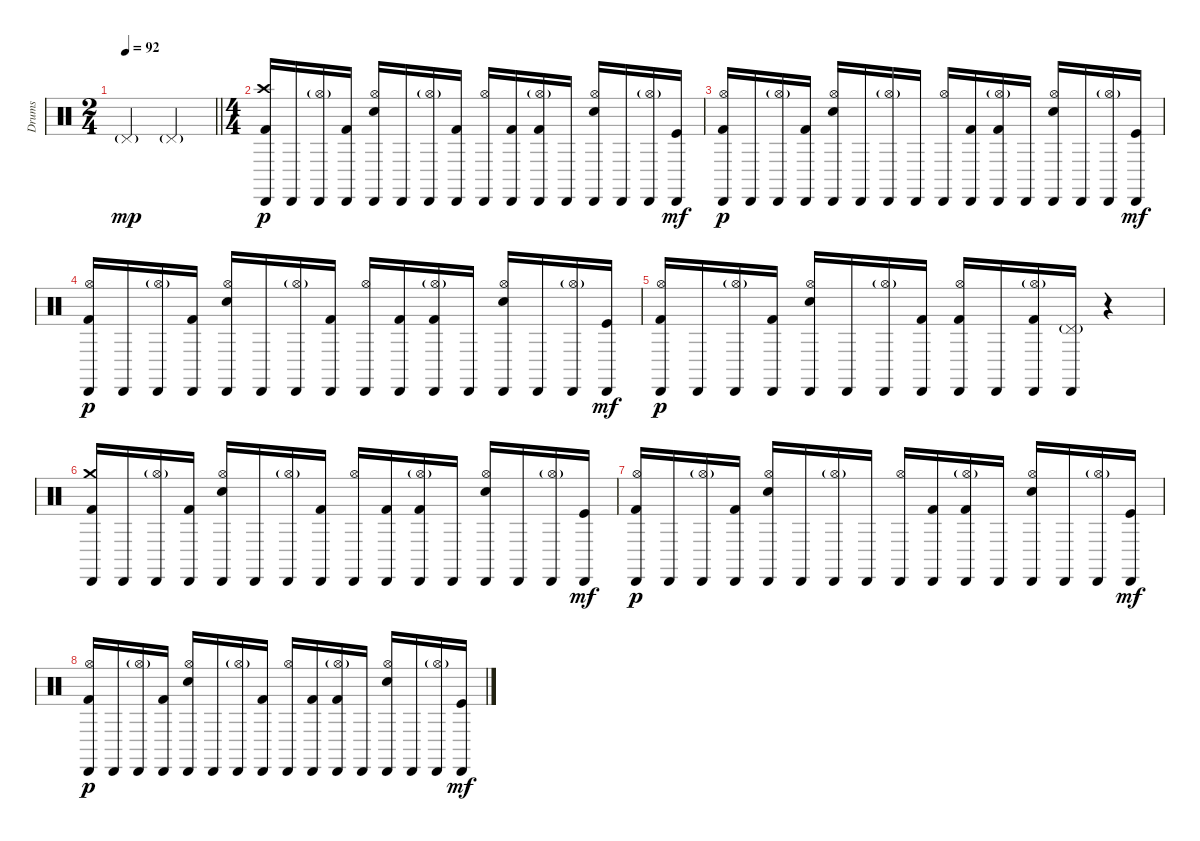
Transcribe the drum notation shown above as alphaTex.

\track ("Drums" "Drums") {instrument percussion}
\staff {score}
\articulation defaults
\ts (2 4)
\tempo 92
\clef neutral
\barLineRight lightlight
\ks c "Pedal Hi-Hat (hit)"{g}.4{dy mp} "Pedal Hi-Hat (hit)"{g}.4
|
\ts (4 4)
("Crash high (hit)" "Cabasa (hit)" "Kick (hit) 2").16{dy p} "Cabasa (hit)".16 ("Hi-Hat (open)"{g} "Cabasa (hit)").16 ("Cabasa (hit)" "Kick (hit) 2").16 ("Hi-Hat (open)" "Cabasa (hit)" "Electric Snare (hit)").16 "Cabasa (hit)".16 ("Hi-Hat (open)"{g} "Cabasa (hit)").16 ("Cabasa (hit)" "Kick (hit) 2").16 ("Hi-Hat (open)" "Cabasa (hit)").16 ("Cabasa (hit)" "Kick (hit) 2").16 ("Hi-Hat (open)"{g} "Cabasa (hit)" "Kick (hit) 2").16 "Cabasa (hit)".16 ("Hi-Hat (open)" "Cabasa (hit)" "Electric Snare (hit)").16 "Cabasa (hit)".16 ("Hi-Hat (open)"{g} "Cabasa (hit)").16 ("Cabasa (hit)" "Kick (hit)").16{dy mf} |
("Hi-Hat (open)" "Cabasa (hit)" "Kick (hit) 2").16{dy p} "Cabasa (hit)".16 ("Hi-Hat (open)"{g} "Cabasa (hit)").16 ("Cabasa (hit)" "Kick (hit) 2").16 ("Hi-Hat (open)" "Cabasa (hit)" "Electric Snare (hit)").16 "Cabasa (hit)".16 ("Hi-Hat (open)"{g} "Cabasa (hit)").16 "Cabasa (hit)".16 ("Hi-Hat (open)" "Cabasa (hit)").16 ("Cabasa (hit)" "Kick (hit) 2").16 ("Hi-Hat (open)"{g} "Cabasa (hit)" "Kick (hit) 2").16 "Cabasa (hit)".16 ("Hi-Hat (open)" "Cabasa (hit)" "Electric Snare (hit)").16 "Cabasa (hit)".16 ("Hi-Hat (open)"{g} "Cabasa (hit)").16 ("Cabasa (hit)" "Kick (hit)").16{dy mf} |
("Hi-Hat (open)" "Cabasa (hit)" "Kick (hit) 2").16{dy p} "Cabasa (hit)".16 ("Hi-Hat (open)"{g} "Cabasa (hit)").16 ("Cabasa (hit)" "Kick (hit) 2").16 ("Hi-Hat (open)" "Cabasa (hit)" "Electric Snare (hit)").16 "Cabasa (hit)".16 ("Hi-Hat (open)"{g} "Cabasa (hit)").16 ("Cabasa (hit)" "Kick (hit) 2").16 ("Hi-Hat (open)" "Cabasa (hit)").16 ("Cabasa (hit)" "Kick (hit) 2").16 ("Hi-Hat (open)"{g} "Cabasa (hit)" "Kick (hit) 2").16 "Cabasa (hit)".16 ("Hi-Hat (open)" "Cabasa (hit)" "Electric Snare (hit)").16 "Cabasa (hit)".16 ("Hi-Hat (open)"{g} "Cabasa (hit)").16 ("Cabasa (hit)" "Kick (hit)").16{dy mf} |
("Hi-Hat (open)" "Cabasa (hit)" "Kick (hit) 2").16{dy p} "Cabasa (hit)".16 ("Hi-Hat (open)"{g} "Cabasa (hit)").16 ("Cabasa (hit)" "Kick (hit) 2").16 ("Hi-Hat (open)" "Cabasa (hit)" "Electric Snare (hit)").16 "Cabasa (hit)".16 ("Hi-Hat (open)"{g} "Cabasa (hit)").16 ("Cabasa (hit)" "Kick (hit) 2").16 ("Hi-Hat (open)" "Cabasa (hit)" "Kick (hit) 2").16 "Cabasa (hit)".16 ("Hi-Hat (open)"{g} "Cabasa (hit)" "Kick (hit) 2").16 ("Pedal Hi-Hat (hit)"{g} "Cabasa (hit)").16 r.4 |
("Crash medium (hit)" "Cabasa (hit)" "Kick (hit) 2").16 "Cabasa (hit)".16 ("Hi-Hat (open)"{g} "Cabasa (hit)").16 ("Cabasa (hit)" "Kick (hit) 2").16 ("Hi-Hat (open)" "Cabasa (hit)" "Electric Snare (hit)").16 "Cabasa (hit)".16 ("Hi-Hat (open)"{g} "Cabasa (hit)").16 ("Cabasa (hit)" "Kick (hit) 2").16 ("Hi-Hat (open)" "Cabasa (hit)").16 ("Cabasa (hit)" "Kick (hit) 2").16 ("Hi-Hat (open)"{g} "Cabasa (hit)" "Kick (hit) 2").16 "Cabasa (hit)".16 ("Hi-Hat (open)" "Cabasa (hit)" "Electric Snare (hit)").16 "Cabasa (hit)".16 ("Hi-Hat (open)"{g} "Cabasa (hit)").16 ("Cabasa (hit)" "Kick (hit)").16{dy mf} |
("Hi-Hat (open)" "Cabasa (hit)" "Kick (hit) 2").16{dy p} "Cabasa (hit)".16 ("Hi-Hat (open)"{g} "Cabasa (hit)").16 ("Cabasa (hit)" "Kick (hit) 2").16 ("Hi-Hat (open)" "Cabasa (hit)" "Electric Snare (hit)").16 "Cabasa (hit)".16 ("Hi-Hat (open)"{g} "Cabasa (hit)").16 "Cabasa (hit)".16 ("Hi-Hat (open)" "Cabasa (hit)").16 ("Cabasa (hit)" "Kick (hit) 2").16 ("Hi-Hat (open)"{g} "Cabasa (hit)" "Kick (hit) 2").16 "Cabasa (hit)".16 ("Hi-Hat (open)" "Cabasa (hit)" "Electric Snare (hit)").16 "Cabasa (hit)".16 ("Hi-Hat (open)"{g} "Cabasa (hit)").16 ("Cabasa (hit)" "Kick (hit)").16{dy mf} |
("Hi-Hat (open)" "Cabasa (hit)" "Kick (hit) 2").16{dy p} "Cabasa (hit)".16 ("Hi-Hat (open)"{g} "Cabasa (hit)").16 ("Cabasa (hit)" "Kick (hit) 2").16 ("Hi-Hat (open)" "Cabasa (hit)" "Electric Snare (hit)").16 "Cabasa (hit)".16 ("Hi-Hat (open)"{g} "Cabasa (hit)").16 ("Cabasa (hit)" "Kick (hit) 2").16 ("Hi-Hat (open)" "Cabasa (hit)").16 ("Cabasa (hit)" "Kick (hit) 2").16 ("Hi-Hat (open)"{g} "Cabasa (hit)" "Kick (hit) 2").16 "Cabasa (hit)".16 ("Hi-Hat (open)" "Cabasa (hit)" "Electric Snare (hit)").16 "Cabasa (hit)".16 ("Hi-Hat (open)"{g} "Cabasa (hit)").16 ("Cabasa (hit)" "Kick (hit)").16{dy mf}
